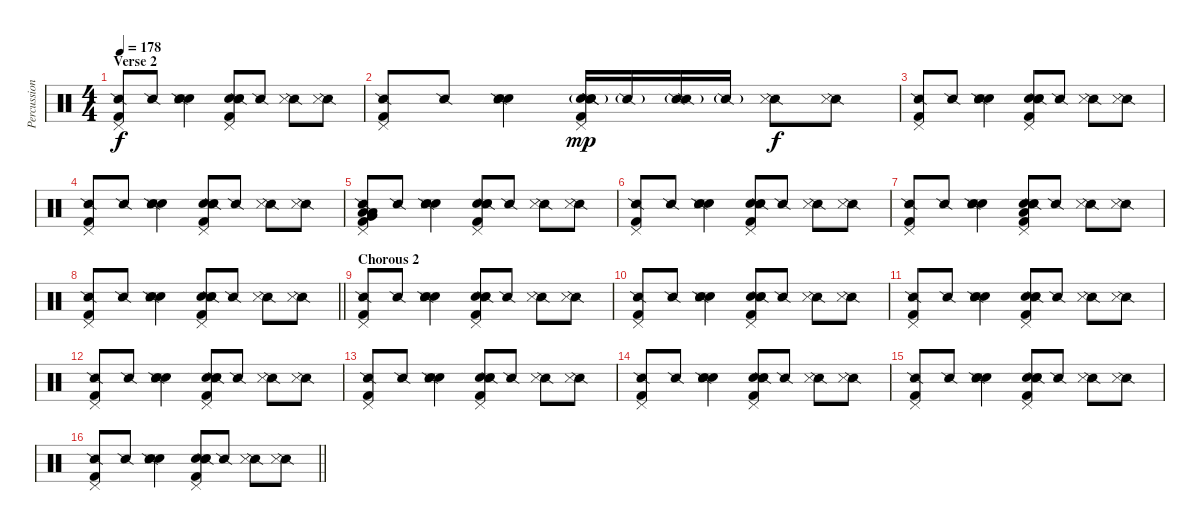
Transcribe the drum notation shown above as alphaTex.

\track ("Percussion" "Percussion") {instrument percussion}
\staff {score}
\articulation defaults
\ts (4 4)
\section ("" "Verse 2")
\tempo 178
\clef neutral
\ks c
("Pedal Hi-Hat (hit)" "Kick (hit) 2" "Snare (side stick) 2").8{dy f} "Snare (side stick) 2".8 ("Hand Clap (hit)" "Hand Clap (hit)" "Snare (side stick) 2" "Metronome (hit)").4 ("Pedal Hi-Hat (hit)" "Hand Clap (hit)" "Hand Clap (hit)" "Kick (hit) 2" "Snare (side stick) 2").8 "Snare (side stick) 2".8 ("Snare (side stick) 2" "Metronome (hit)").8 ("Snare (side stick) 2" "Metronome (hit)").8 |
("Pedal Hi-Hat (hit)" "Kick (hit) 2" "Snare (side stick) 2").8 "Snare (side stick) 2".8 ("Hand Clap (hit)" "Hand Clap (hit)" "Snare (side stick) 2" "Metronome (hit)").4 ("Pedal Hi-Hat (hit)" "Hand Clap (hit)" "Hand Clap (hit)" "Kick (hit) 2" "Snare (side stick) 2" "Snare (side stick) 2"{g}).16{dy mp} "Snare (side stick) 2"{g}.16 ("Snare (side stick) 2" "Snare (side stick) 2"{g}).16 "Snare (side stick) 2"{g}.16 ("Snare (side stick) 2" "Metronome (hit)").8{dy f} ("Snare (side stick) 2" "Metronome (hit)").8 |
("Pedal Hi-Hat (hit)" "Kick (hit) 2" "Snare (side stick) 2").8 "Snare (side stick) 2".8 ("Hand Clap (hit)" "Hand Clap (hit)" "Snare (side stick) 2" "Metronome (hit)").4 ("Pedal Hi-Hat (hit)" "Hand Clap (hit)" "Hand Clap (hit)" "Kick (hit) 2" "Snare (side stick) 2").8 "Snare (side stick) 2".8 ("Snare (side stick) 2" "Metronome (hit)").8 ("Snare (side stick) 2" "Metronome (hit)").8 |
("Pedal Hi-Hat (hit)" "Kick (hit) 2" "Snare (side stick) 2").8 "Snare (side stick) 2".8 ("Hand Clap (hit)" "Hand Clap (hit)" "Snare (side stick) 2" "Metronome (hit)").4 ("Pedal Hi-Hat (hit)" "Hand Clap (hit)" "Hand Clap (hit)" "Kick (hit) 2" "Snare (side stick) 2").8 "Snare (side stick) 2".8 ("Snare (side stick) 2" "Metronome (hit)").8 ("Snare (side stick) 2" "Metronome (hit)").8 |
("Pedal Hi-Hat (hit)" "Low Floor Tom (hit)" "Very Low Tom (hit)" "Kick (hit) 2" "Snare (side stick) 2" "Low Tom (hit)").8 "Snare (side stick) 2".8 ("Hand Clap (hit)" "Hand Clap (hit)" "Snare (side stick) 2" "Metronome (hit)").4 ("Pedal Hi-Hat (hit)" "Hand Clap (hit)" "Hand Clap (hit)" "Kick (hit) 2" "Snare (side stick) 2").8 "Snare (side stick) 2".8 ("Snare (side stick) 2" "Metronome (hit)").8 ("Snare (side stick) 2" "Metronome (hit)").8 |
("Pedal Hi-Hat (hit)" "Kick (hit) 2" "Snare (side stick) 2").8 "Snare (side stick) 2".8 ("Hand Clap (hit)" "Hand Clap (hit)" "Snare (side stick) 2" "Metronome (hit)").4 ("Pedal Hi-Hat (hit)" "Hand Clap (hit)" "Hand Clap (hit)" "Kick (hit) 2" "Snare (side stick) 2").8 "Snare (side stick) 2".8 ("Snare (side stick) 2" "Metronome (hit)").8 ("Snare (side stick) 2" "Metronome (hit)").8 |
("Pedal Hi-Hat (hit)" "Kick (hit) 2" "Snare (side stick) 2").8 "Snare (side stick) 2".8 ("Hand Clap (hit)" "Hand Clap (hit)" "Snare (side stick) 2" "Metronome (hit)").4 ("Pedal Hi-Hat (hit)" "Hand Clap (hit)" "Hand Clap (hit)" "Kick (hit) 2" "Snare (side stick) 2" "Low Floor Tom (hit)").8 "Snare (side stick) 2".8 ("Snare (side stick) 2" "Metronome (hit)").8 ("Snare (side stick) 2" "Metronome (hit)").8 |
\barLineRight lightlight
("Pedal Hi-Hat (hit)" "Kick (hit) 2" "Snare (side stick) 2").8 "Snare (side stick) 2".8 ("Hand Clap (hit)" "Hand Clap (hit)" "Snare (side stick) 2" "Metronome (hit)").4 ("Pedal Hi-Hat (hit)" "Hand Clap (hit)" "Hand Clap (hit)" "Kick (hit) 2" "Snare (side stick) 2").8 "Snare (side stick) 2".8 ("Snare (side stick) 2" "Metronome (hit)").8 ("Snare (side stick) 2" "Metronome (hit)").8 |
\section ("" "Chorous 2")
("Pedal Hi-Hat (hit)" "Kick (hit) 2" "Snare (side stick) 2").8 "Snare (side stick) 2".8 ("Hand Clap (hit)" "Hand Clap (hit)" "Snare (side stick) 2" "Metronome (hit)").4 ("Pedal Hi-Hat (hit)" "Hand Clap (hit)" "Hand Clap (hit)" "Kick (hit) 2" "Snare (side stick) 2").8 "Snare (side stick) 2".8 ("Snare (side stick) 2" "Metronome (hit)").8 ("Snare (side stick) 2" "Metronome (hit)").8 |
("Pedal Hi-Hat (hit)" "Kick (hit) 2" "Snare (side stick) 2").8 "Snare (side stick) 2".8 ("Hand Clap (hit)" "Hand Clap (hit)" "Snare (side stick) 2" "Metronome (hit)").4 ("Pedal Hi-Hat (hit)" "Hand Clap (hit)" "Hand Clap (hit)" "Kick (hit) 2" "Snare (side stick) 2").8 "Snare (side stick) 2".8 ("Snare (side stick) 2" "Metronome (hit)").8 ("Snare (side stick) 2" "Metronome (hit)").8 |
("Pedal Hi-Hat (hit)" "Kick (hit) 2" "Snare (side stick) 2").8 "Snare (side stick) 2".8 ("Hand Clap (hit)" "Hand Clap (hit)" "Snare (side stick) 2" "Metronome (hit)").4 ("Pedal Hi-Hat (hit)" "Hand Clap (hit)" "Hand Clap (hit)" "Kick (hit) 2" "Snare (side stick) 2").8 "Snare (side stick) 2".8 ("Snare (side stick) 2" "Metronome (hit)").8 ("Snare (side stick) 2" "Metronome (hit)").8 |
("Pedal Hi-Hat (hit)" "Kick (hit) 2" "Snare (side stick) 2").8 "Snare (side stick) 2".8 ("Hand Clap (hit)" "Hand Clap (hit)" "Snare (side stick) 2" "Metronome (hit)").4 ("Pedal Hi-Hat (hit)" "Hand Clap (hit)" "Hand Clap (hit)" "Kick (hit) 2" "Snare (side stick) 2").8 "Snare (side stick) 2".8 ("Snare (side stick) 2" "Metronome (hit)").8 ("Snare (side stick) 2" "Metronome (hit)").8 |
("Pedal Hi-Hat (hit)" "Kick (hit) 2" "Snare (side stick) 2").8 "Snare (side stick) 2".8 ("Hand Clap (hit)" "Hand Clap (hit)" "Snare (side stick) 2" "Metronome (hit)").4 ("Pedal Hi-Hat (hit)" "Hand Clap (hit)" "Hand Clap (hit)" "Kick (hit) 2" "Snare (side stick) 2").8 "Snare (side stick) 2".8 ("Snare (side stick) 2" "Metronome (hit)").8 ("Snare (side stick) 2" "Metronome (hit)").8 |
("Pedal Hi-Hat (hit)" "Kick (hit) 2" "Snare (side stick) 2").8 "Snare (side stick) 2".8 ("Hand Clap (hit)" "Hand Clap (hit)" "Snare (side stick) 2" "Metronome (hit)").4 ("Pedal Hi-Hat (hit)" "Hand Clap (hit)" "Hand Clap (hit)" "Kick (hit) 2" "Snare (side stick) 2").8 "Snare (side stick) 2".8 ("Snare (side stick) 2" "Metronome (hit)").8 ("Snare (side stick) 2" "Metronome (hit)").8 |
("Pedal Hi-Hat (hit)" "Kick (hit) 2" "Snare (side stick) 2").8 "Snare (side stick) 2".8 ("Hand Clap (hit)" "Hand Clap (hit)" "Snare (side stick) 2" "Metronome (hit)").4 ("Pedal Hi-Hat (hit)" "Hand Clap (hit)" "Hand Clap (hit)" "Kick (hit) 2" "Snare (side stick) 2").8 "Snare (side stick) 2".8 ("Snare (side stick) 2" "Metronome (hit)").8 ("Snare (side stick) 2" "Metronome (hit)").8 |
\barLineRight lightlight
("Pedal Hi-Hat (hit)" "Kick (hit) 2" "Snare (side stick) 2").8 "Snare (side stick) 2".8 ("Hand Clap (hit)" "Hand Clap (hit)" "Snare (side stick) 2" "Metronome (hit)").4 ("Pedal Hi-Hat (hit)" "Hand Clap (hit)" "Hand Clap (hit)" "Kick (hit) 2" "Snare (side stick) 2").8 "Snare (side stick) 2".8 ("Snare (side stick) 2" "Metronome (hit)").8 ("Snare (side stick) 2" "Metronome (hit)").8
